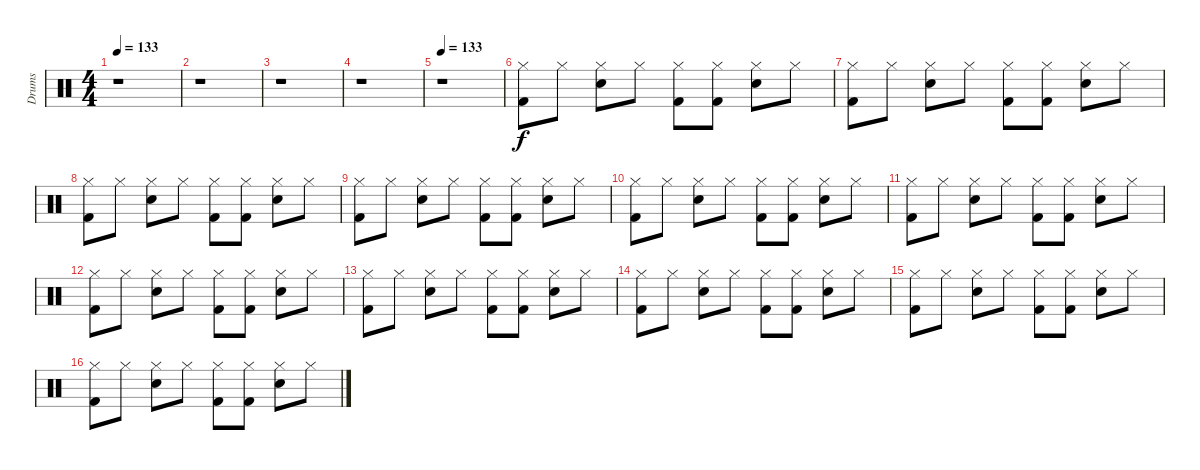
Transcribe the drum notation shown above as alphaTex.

\track ("Drums" "Drums") {instrument percussion}
\staff {score}
\articulation defaults
\ts (4 4)
\tempo 133
\clef neutral
\ks c
r.1{dy f} |
r.1 |
r.1 |
r.1 |
\tempo 133
r.1 |
("Kick (hit) 2" "Hi-Hat (closed)").8 "Hi-Hat (closed)".8 ("Snare (hit) 2" "Hi-Hat (closed)").8 "Hi-Hat (closed)".8 ("Kick (hit) 2" "Hi-Hat (closed)").8 ("Kick (hit) 2" "Hi-Hat (closed)").8 ("Snare (hit) 2" "Hi-Hat (closed)").8 "Hi-Hat (closed)".8 |
("Kick (hit) 2" "Hi-Hat (closed)").8 "Hi-Hat (closed)".8 ("Snare (hit) 2" "Hi-Hat (closed)").8 "Hi-Hat (closed)".8 ("Kick (hit) 2" "Hi-Hat (closed)").8 ("Kick (hit) 2" "Hi-Hat (closed)").8 ("Snare (hit) 2" "Hi-Hat (closed)").8 "Hi-Hat (closed)".8 |
("Kick (hit) 2" "Hi-Hat (closed)").8 "Hi-Hat (closed)".8 ("Snare (hit) 2" "Hi-Hat (closed)").8 "Hi-Hat (closed)".8 ("Kick (hit) 2" "Hi-Hat (closed)").8 ("Kick (hit) 2" "Hi-Hat (closed)").8 ("Snare (hit) 2" "Hi-Hat (closed)").8 "Hi-Hat (closed)".8 |
("Kick (hit) 2" "Hi-Hat (closed)").8 "Hi-Hat (closed)".8 ("Snare (hit) 2" "Hi-Hat (closed)").8 "Hi-Hat (closed)".8 ("Kick (hit) 2" "Hi-Hat (closed)").8 ("Kick (hit) 2" "Hi-Hat (closed)").8 ("Snare (hit) 2" "Hi-Hat (closed)").8 "Hi-Hat (closed)".8 |
("Kick (hit) 2" "Hi-Hat (closed)").8 "Hi-Hat (closed)".8 ("Snare (hit) 2" "Hi-Hat (closed)").8 "Hi-Hat (closed)".8 ("Kick (hit) 2" "Hi-Hat (closed)").8 ("Kick (hit) 2" "Hi-Hat (closed)").8 ("Snare (hit) 2" "Hi-Hat (closed)").8 "Hi-Hat (closed)".8 |
("Kick (hit) 2" "Hi-Hat (closed)").8 "Hi-Hat (closed)".8 ("Snare (hit) 2" "Hi-Hat (closed)").8 "Hi-Hat (closed)".8 ("Kick (hit) 2" "Hi-Hat (closed)").8 ("Kick (hit) 2" "Hi-Hat (closed)").8 ("Snare (hit) 2" "Hi-Hat (closed)").8 "Hi-Hat (closed)".8 |
("Kick (hit) 2" "Hi-Hat (closed)").8 "Hi-Hat (closed)".8 ("Snare (hit) 2" "Hi-Hat (closed)").8 "Hi-Hat (closed)".8 ("Kick (hit) 2" "Hi-Hat (closed)").8 ("Kick (hit) 2" "Hi-Hat (closed)").8 ("Snare (hit) 2" "Hi-Hat (closed)").8 "Hi-Hat (closed)".8 |
("Kick (hit) 2" "Hi-Hat (closed)").8 "Hi-Hat (closed)".8 ("Snare (hit) 2" "Hi-Hat (closed)").8 "Hi-Hat (closed)".8 ("Kick (hit) 2" "Hi-Hat (closed)").8 ("Kick (hit) 2" "Hi-Hat (closed)").8 ("Snare (hit) 2" "Hi-Hat (closed)").8 "Hi-Hat (closed)".8 |
("Kick (hit) 2" "Hi-Hat (closed)").8 "Hi-Hat (closed)".8 ("Snare (hit) 2" "Hi-Hat (closed)").8 "Hi-Hat (closed)".8 ("Kick (hit) 2" "Hi-Hat (closed)").8 ("Kick (hit) 2" "Hi-Hat (closed)").8 ("Snare (hit) 2" "Hi-Hat (closed)").8 "Hi-Hat (closed)".8 |
("Kick (hit) 2" "Hi-Hat (closed)").8 "Hi-Hat (closed)".8 ("Snare (hit) 2" "Hi-Hat (closed)").8 "Hi-Hat (closed)".8 ("Kick (hit) 2" "Hi-Hat (closed)").8 ("Kick (hit) 2" "Hi-Hat (closed)").8 ("Snare (hit) 2" "Hi-Hat (closed)").8 "Hi-Hat (closed)".8 |
("Kick (hit) 2" "Hi-Hat (closed)").8 "Hi-Hat (closed)".8 ("Snare (hit) 2" "Hi-Hat (closed)").8 "Hi-Hat (closed)".8 ("Kick (hit) 2" "Hi-Hat (closed)").8 ("Kick (hit) 2" "Hi-Hat (closed)").8 ("Snare (hit) 2" "Hi-Hat (closed)").8 "Hi-Hat (closed)".8
